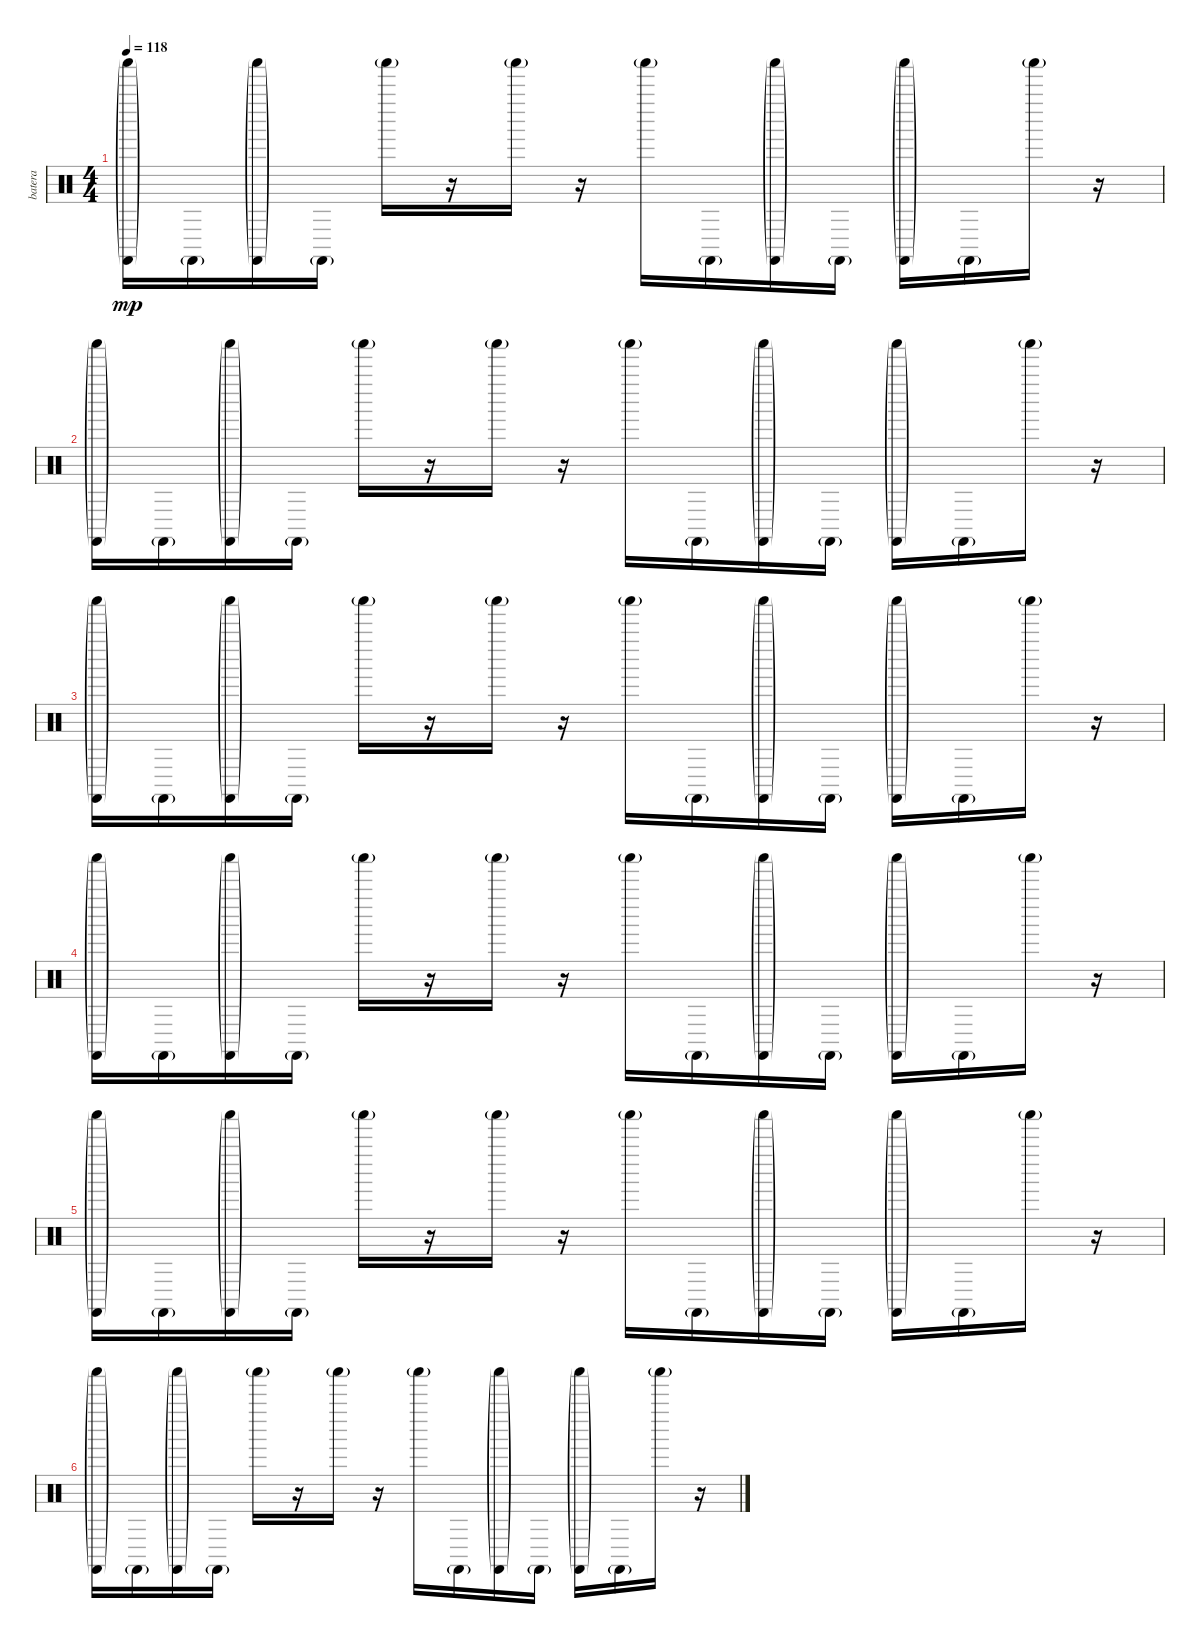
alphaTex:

\track ("batera" "batera") {instrument percussion}
\staff {score}
\articulation defaults
\ts (4 4)
\tempo 118
\clef neutral
\ks c
("Castanets (hit)"{g} "Shaker (hit)"{g}).16{dy mp} "Castanets (hit)"{g}.16 ("Castanets (hit)"{g} "Shaker (hit)"{g}).16 "Castanets (hit)"{g}.16 "Shaker (hit)"{g}.16 r.16 "Shaker (hit)"{g}.16 r.16 "Shaker (hit)"{g}.16 "Castanets (hit)"{g}.16 ("Castanets (hit)"{g} "Shaker (hit)"{g}).16 "Castanets (hit)"{g}.16 ("Castanets (hit)"{g} "Shaker (hit)"{g}).16 "Castanets (hit)"{g}.16 "Shaker (hit)"{g}.16 r.16 |
("Castanets (hit)"{g} "Shaker (hit)"{g}).16 "Castanets (hit)"{g}.16 ("Castanets (hit)"{g} "Shaker (hit)"{g}).16 "Castanets (hit)"{g}.16 "Shaker (hit)"{g}.16 r.16 "Shaker (hit)"{g}.16 r.16 "Shaker (hit)"{g}.16 "Castanets (hit)"{g}.16 ("Castanets (hit)"{g} "Shaker (hit)"{g}).16 "Castanets (hit)"{g}.16 ("Castanets (hit)"{g} "Shaker (hit)"{g}).16 "Castanets (hit)"{g}.16 "Shaker (hit)"{g}.16 r.16 |
("Castanets (hit)"{g} "Shaker (hit)"{g}).16 "Castanets (hit)"{g}.16 ("Castanets (hit)"{g} "Shaker (hit)"{g}).16 "Castanets (hit)"{g}.16 "Shaker (hit)"{g}.16 r.16 "Shaker (hit)"{g}.16 r.16 "Shaker (hit)"{g}.16 "Castanets (hit)"{g}.16 ("Castanets (hit)"{g} "Shaker (hit)"{g}).16 "Castanets (hit)"{g}.16 ("Castanets (hit)"{g} "Shaker (hit)"{g}).16 "Castanets (hit)"{g}.16 "Shaker (hit)"{g}.16 r.16 |
("Castanets (hit)"{g} "Shaker (hit)"{g}).16 "Castanets (hit)"{g}.16 ("Castanets (hit)"{g} "Shaker (hit)"{g}).16 "Castanets (hit)"{g}.16 "Shaker (hit)"{g}.16 r.16 "Shaker (hit)"{g}.16 r.16 "Shaker (hit)"{g}.16 "Castanets (hit)"{g}.16 ("Castanets (hit)"{g} "Shaker (hit)"{g}).16 "Castanets (hit)"{g}.16 ("Castanets (hit)"{g} "Shaker (hit)"{g}).16 "Castanets (hit)"{g}.16 "Shaker (hit)"{g}.16 r.16 |
("Castanets (hit)"{g} "Shaker (hit)"{g}).16 "Castanets (hit)"{g}.16 ("Castanets (hit)"{g} "Shaker (hit)"{g}).16 "Castanets (hit)"{g}.16 "Shaker (hit)"{g}.16 r.16 "Shaker (hit)"{g}.16 r.16 "Shaker (hit)"{g}.16 "Castanets (hit)"{g}.16 ("Castanets (hit)"{g} "Shaker (hit)"{g}).16 "Castanets (hit)"{g}.16 ("Castanets (hit)"{g} "Shaker (hit)"{g}).16 "Castanets (hit)"{g}.16 "Shaker (hit)"{g}.16 r.16 |
("Castanets (hit)"{g} "Shaker (hit)"{g}).16 "Castanets (hit)"{g}.16 ("Castanets (hit)"{g} "Shaker (hit)"{g}).16 "Castanets (hit)"{g}.16 "Shaker (hit)"{g}.16 r.16 "Shaker (hit)"{g}.16 r.16 "Shaker (hit)"{g}.16 "Castanets (hit)"{g}.16 ("Castanets (hit)"{g} "Shaker (hit)"{g}).16 "Castanets (hit)"{g}.16 ("Castanets (hit)"{g} "Shaker (hit)"{g}).16 "Castanets (hit)"{g}.16 "Shaker (hit)"{g}.16 r.16
